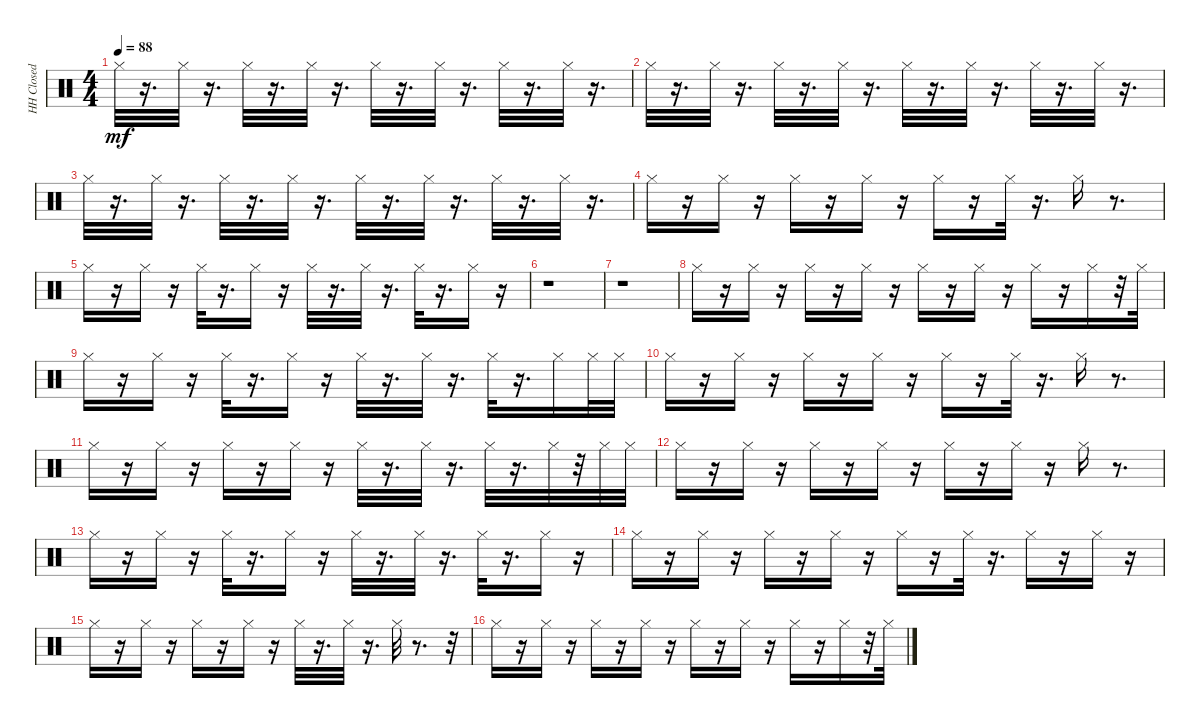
\track ("HH Closed" "HH Closed") {instrument percussion}
\staff {score}
\articulation defaults
\ts (4 4)
\tempo 88
\clef neutral
\ks c "Hi-Hat (closed)".32{dy mf}
r.16{d} "Hi-Hat (closed)".32 r.16{d} "Hi-Hat (closed)".32 r.16{d} "Hi-Hat (closed)".32 r.16{d} "Hi-Hat (closed)".32 r.16{d} "Hi-Hat (closed)".32 r.16{d} "Hi-Hat (closed)".32 r.16{d} "Hi-Hat (closed)".32 r.16{d} |
"Hi-Hat (closed)".32 r.16{d} "Hi-Hat (closed)".32 r.16{d} "Hi-Hat (closed)".32 r.16{d} "Hi-Hat (closed)".32 r.16{d} "Hi-Hat (closed)".32 r.16{d} "Hi-Hat (closed)".32 r.16{d} "Hi-Hat (closed)".32 r.16{d} "Hi-Hat (closed)".32 r.16{d} |
"Hi-Hat (closed)".32 r.16{d} "Hi-Hat (closed)".32 r.16{d} "Hi-Hat (closed)".32 r.16{d} "Hi-Hat (closed)".32 r.16{d} "Hi-Hat (closed)".32 r.16{d} "Hi-Hat (closed)".32 r.16{d} "Hi-Hat (closed)".32 r.16{d} "Hi-Hat (closed)".32 r.16{d} |
"Hi-Hat (closed)".16 r.16 "Hi-Hat (closed)".16 r.16 "Hi-Hat (closed)".16 r.16 "Hi-Hat (closed)".16 r.16 "Hi-Hat (closed)".16 r.16 "Hi-Hat (closed)".32 r.16{d} "Hi-Hat (closed)".16 r.8{d} |
"Hi-Hat (closed)".16 r.16 "Hi-Hat (closed)".16 r.16 "Hi-Hat (closed)".32 r.16{d} "Hi-Hat (closed)".16 r.16 "Hi-Hat (closed)".32 r.16{d} "Hi-Hat (closed)".32 r.16{d} "Hi-Hat (closed)".32 r.16{d} "Hi-Hat (closed)".16 r.16 |
r.1 |
r.1 |
"Hi-Hat (closed)".16 r.16 "Hi-Hat (closed)".16 r.16 "Hi-Hat (closed)".16 r.16 "Hi-Hat (closed)".16 r.16 "Hi-Hat (closed)".16 r.16 "Hi-Hat (closed)".16 r.16 "Hi-Hat (closed)".16 r.16 "Hi-Hat (closed)".16 r.32 "Hi-Hat (closed)".32 |
"Hi-Hat (closed)".16 r.16 "Hi-Hat (closed)".16 r.16 "Hi-Hat (closed)".32 r.16{d} "Hi-Hat (closed)".16 r.16 "Hi-Hat (closed)".32 r.16{d} "Hi-Hat (closed)".32 r.16{d} "Hi-Hat (closed)".32 r.16{d} "Hi-Hat (closed)".16 "Hi-Hat (closed)".32 "Hi-Hat (closed)".32 |
"Hi-Hat (closed)".16 r.16 "Hi-Hat (closed)".16 r.16 "Hi-Hat (closed)".16 r.16 "Hi-Hat (closed)".16 r.16 "Hi-Hat (closed)".16 r.16 "Hi-Hat (closed)".32 r.16{d} "Hi-Hat (closed)".16 r.8{d} |
"Hi-Hat (closed)".16 r.16 "Hi-Hat (closed)".16 r.16 "Hi-Hat (closed)".16 r.16 "Hi-Hat (closed)".16 r.16 "Hi-Hat (closed)".32 r.16{d} "Hi-Hat (closed)".32 r.16{d} "Hi-Hat (closed)".32 r.16{d} "Hi-Hat (closed)".32 r.32 "Hi-Hat (closed)".32 "Hi-Hat (closed)".32 |
"Hi-Hat (closed)".16 r.16 "Hi-Hat (closed)".16 r.16 "Hi-Hat (closed)".16 r.16 "Hi-Hat (closed)".16 r.16 "Hi-Hat (closed)".16 r.16 "Hi-Hat (closed)".16 r.16 "Hi-Hat (closed)".16 r.8{d} |
"Hi-Hat (closed)".16 r.16 "Hi-Hat (closed)".16 r.16 "Hi-Hat (closed)".32 r.16{d} "Hi-Hat (closed)".16 r.16 "Hi-Hat (closed)".32 r.16{d} "Hi-Hat (closed)".32 r.16{d} "Hi-Hat (closed)".32 r.16{d} "Hi-Hat (closed)".16 r.16 |
"Hi-Hat (closed)".16 r.16 "Hi-Hat (closed)".16 r.16 "Hi-Hat (closed)".16 r.16 "Hi-Hat (closed)".16 r.16 "Hi-Hat (closed)".16 r.16 "Hi-Hat (closed)".32 r.16{d} "Hi-Hat (closed)".16 r.16 "Hi-Hat (closed)".16 r.16 |
"Hi-Hat (closed)".16 r.16 "Hi-Hat (closed)".16 r.16 "Hi-Hat (closed)".16 r.16 "Hi-Hat (closed)".16 r.16 "Hi-Hat (closed)".32 r.16{d} "Hi-Hat (closed)".32 r.16{d} "Hi-Hat (closed)".32 r.8{d} r.32 |
"Hi-Hat (closed)".16 r.16 "Hi-Hat (closed)".16 r.16 "Hi-Hat (closed)".16 r.16 "Hi-Hat (closed)".16 r.16 "Hi-Hat (closed)".16 r.16 "Hi-Hat (closed)".16 r.16 "Hi-Hat (closed)".16 r.16 "Hi-Hat (closed)".16 r.32 "Hi-Hat (closed)".32
